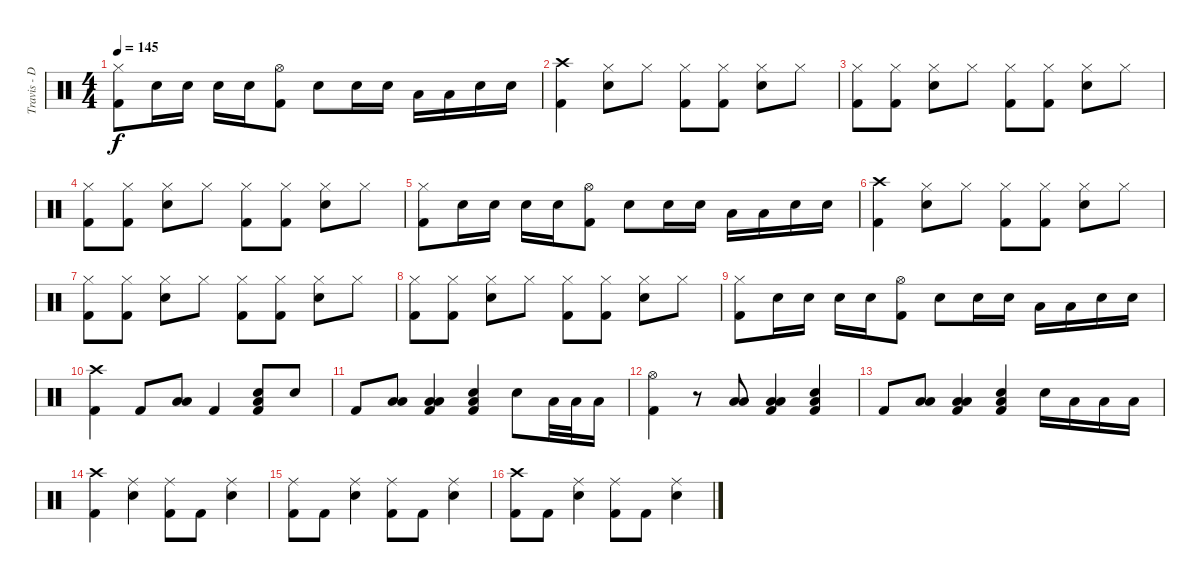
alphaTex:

\track ("Travis - Drums" "Travis - D") {instrument percussion}
\staff {score}
\articulation defaults
\ts (4 4)
\tempo 145
\clef neutral
\ks c
("Hi-Hat (closed)" "Kick (hit) 2").8{dy f} "Snare (hit) 2".16 "Snare (hit) 2".16 "Snare (hit) 2".16 "Snare (hit) 2".16 ("Hi-Hat (open)" "Kick (hit) 2").8 "Snare (hit) 2".8 "Snare (hit) 2".16 "Snare (hit) 2".16 "Low Tom (hit)".16 "Low Tom (hit)".16 "Snare (hit) 2".16 "Snare (hit) 2".16 |
("Crash high (hit)" "Kick (hit) 2").4 ("Hi-Hat (closed)" "Snare (hit) 2").8 "Hi-Hat (closed)".8 ("Hi-Hat (closed)" "Kick (hit) 2").8 ("Hi-Hat (closed)" "Kick (hit) 2").8 ("Hi-Hat (closed)" "Snare (hit) 2").8 "Hi-Hat (closed)".8 |
("Hi-Hat (closed)" "Kick (hit) 2").8 ("Hi-Hat (closed)" "Kick (hit) 2").8 ("Hi-Hat (closed)" "Snare (hit) 2").8 "Hi-Hat (closed)".8 ("Hi-Hat (closed)" "Kick (hit) 2").8 ("Hi-Hat (closed)" "Kick (hit) 2").8 ("Hi-Hat (closed)" "Snare (hit) 2").8 "Hi-Hat (closed)".8 |
("Hi-Hat (closed)" "Kick (hit) 2").8 ("Hi-Hat (closed)" "Kick (hit) 2").8 ("Hi-Hat (closed)" "Snare (hit) 2").8 "Hi-Hat (closed)".8 ("Hi-Hat (closed)" "Kick (hit) 2").8 ("Hi-Hat (closed)" "Kick (hit) 2").8 ("Hi-Hat (closed)" "Snare (hit) 2").8 "Hi-Hat (closed)".8 |
("Hi-Hat (closed)" "Kick (hit) 2").8 "Snare (hit) 2".16 "Snare (hit) 2".16 "Snare (hit) 2".16 "Snare (hit) 2".16 ("Hi-Hat (open)" "Kick (hit) 2").8 "Snare (hit) 2".8 "Snare (hit) 2".16 "Snare (hit) 2".16 "Low Tom (hit)".16 "Low Tom (hit)".16 "Snare (hit) 2".16 "Snare (hit) 2".16 |
("Crash high (hit)" "Kick (hit) 2").4 ("Hi-Hat (closed)" "Snare (hit) 2").8 "Hi-Hat (closed)".8 ("Hi-Hat (closed)" "Kick (hit) 2").8 ("Hi-Hat (closed)" "Kick (hit) 2").8 ("Hi-Hat (closed)" "Snare (hit) 2").8 "Hi-Hat (closed)".8 |
("Hi-Hat (closed)" "Kick (hit) 2").8 ("Hi-Hat (closed)" "Kick (hit) 2").8 ("Hi-Hat (closed)" "Snare (hit) 2").8 "Hi-Hat (closed)".8 ("Hi-Hat (closed)" "Kick (hit) 2").8 ("Hi-Hat (closed)" "Kick (hit) 2").8 ("Hi-Hat (closed)" "Snare (hit) 2").8 "Hi-Hat (closed)".8 |
("Hi-Hat (closed)" "Kick (hit) 2").8 ("Hi-Hat (closed)" "Kick (hit) 2").8 ("Hi-Hat (closed)" "Snare (hit) 2").8 "Hi-Hat (closed)".8 ("Hi-Hat (closed)" "Kick (hit) 2").8 ("Hi-Hat (closed)" "Kick (hit) 2").8 ("Hi-Hat (closed)" "Snare (hit) 2").8 "Hi-Hat (closed)".8 |
("Hi-Hat (closed)" "Kick (hit) 2").8 "Snare (hit) 2".16 "Snare (hit) 2".16 "Snare (hit) 2".16 "Snare (hit) 2".16 ("Hi-Hat (open)" "Kick (hit) 2").8 "Snare (hit) 2".8 "Snare (hit) 2".16 "Snare (hit) 2".16 "Low Tom (hit)".16 "Low Tom (hit)".16 "Snare (hit) 2".16 "Snare (hit) 2".16 |
("Crash high (hit)" "Kick (hit) 2").4 "Kick (hit) 2".8 ("Low Tom (hit)" "Low Floor Tom (hit)").8 "Kick (hit) 2".4 ("Snare (hit) 2" "Low Floor Tom (hit)" "Kick (hit) 2").8 "Snare (hit) 2".8 |
"Kick (hit) 2".8 ("Low Tom (hit)" "Low Floor Tom (hit)").8 ("Low Tom (hit)" "Low Floor Tom (hit)" "Kick (hit) 2").4 ("Snare (hit) 2" "Low Floor Tom (hit)" "Kick (hit) 2").4 "Snare (hit) 2".8 "Low Tom (hit)".32 "Low Tom (hit)".32 "Low Tom (hit)".16 |
("Hi-Hat (open)" "Kick (hit) 2").4 r.8 ("Low Tom (hit)" "Low Floor Tom (hit)").8 ("Low Tom (hit)" "Low Floor Tom (hit)" "Kick (hit) 2").4 ("Snare (hit) 2" "Low Floor Tom (hit)" "Kick (hit) 2").4 |
"Kick (hit) 2".8 ("Low Tom (hit)" "Low Floor Tom (hit)").8 ("Low Tom (hit)" "Low Floor Tom (hit)" "Kick (hit) 2").4 ("Snare (hit) 2" "Low Floor Tom (hit)" "Kick (hit) 2").4 "Snare (hit) 2".16 "Low Tom (hit)".16 "Low Floor Tom (hit)".16 "Low Floor Tom (hit)".16 |
("Crash high (hit)" "Kick (hit) 2").4 ("Ride (middle)" "Snare (hit) 2").4 ("Ride (middle)" "Kick (hit) 2").8 "Kick (hit) 2".8 ("Ride (middle)" "Snare (hit) 2").4 |
("Ride (middle)" "Kick (hit) 2").8 "Kick (hit) 2".8 ("Ride (middle)" "Snare (hit) 2").4 ("Ride (middle)" "Kick (hit) 2").8 "Kick (hit) 2".8 ("Ride (middle)" "Snare (hit) 2").4 |
("Crash high (hit)" "Kick (hit) 2").8 "Kick (hit) 2".8 ("Ride (middle)" "Snare (hit) 2").4 ("Ride (middle)" "Kick (hit) 2").8 "Kick (hit) 2".8 ("Ride (middle)" "Snare (hit) 2").4
